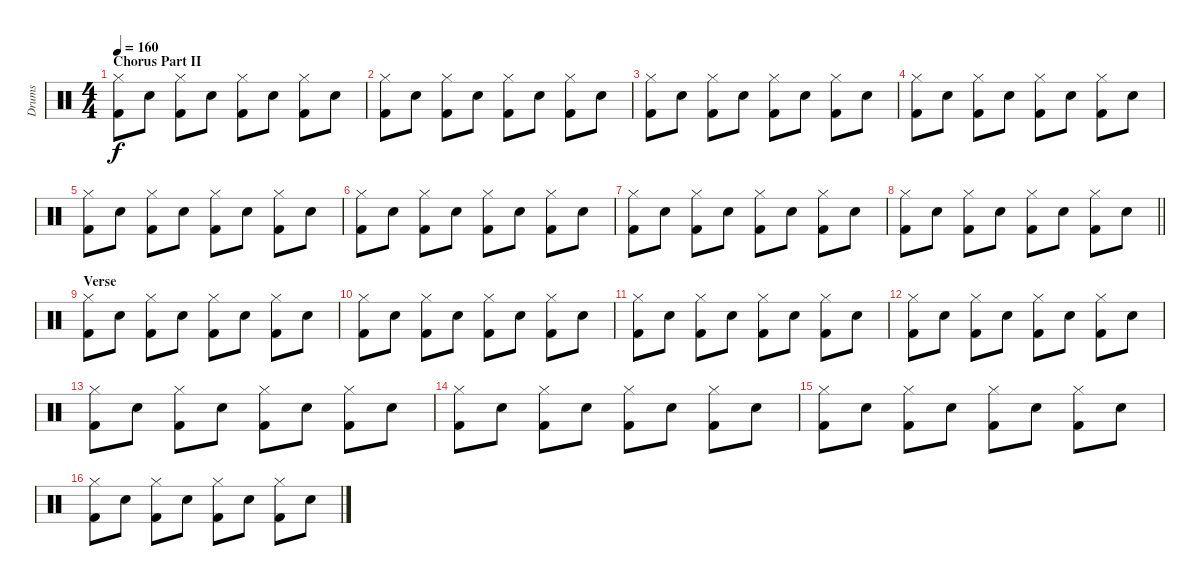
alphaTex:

\track ("Drums" "Drums") {instrument percussion}
\staff {score}
\articulation defaults
\ts (4 4)
\section ("" "Chorus Part II")
\tempo 160
\clef neutral
\ks c
("Hi-Hat (closed)" "Kick (hit) 2").8{dy f} "Snare (hit) 2".8 ("Hi-Hat (closed)" "Kick (hit) 2").8 "Snare (hit) 2".8 ("Hi-Hat (closed)" "Kick (hit) 2").8 "Snare (hit) 2".8 ("Hi-Hat (closed)" "Kick (hit) 2").8 "Snare (hit) 2".8 |
("Hi-Hat (closed)" "Kick (hit) 2").8 "Snare (hit) 2".8 ("Hi-Hat (closed)" "Kick (hit) 2").8 "Snare (hit) 2".8 ("Hi-Hat (closed)" "Kick (hit) 2").8 "Snare (hit) 2".8 ("Hi-Hat (closed)" "Kick (hit) 2").8 "Snare (hit) 2".8 |
("Hi-Hat (closed)" "Kick (hit) 2").8 "Snare (hit) 2".8 ("Hi-Hat (closed)" "Kick (hit) 2").8 "Snare (hit) 2".8 ("Hi-Hat (closed)" "Kick (hit) 2").8 "Snare (hit) 2".8 ("Hi-Hat (closed)" "Kick (hit) 2").8 "Snare (hit) 2".8 |
("Hi-Hat (closed)" "Kick (hit) 2").8 "Snare (hit) 2".8 ("Hi-Hat (closed)" "Kick (hit) 2").8 "Snare (hit) 2".8 ("Hi-Hat (closed)" "Kick (hit) 2").8 "Snare (hit) 2".8 ("Hi-Hat (closed)" "Kick (hit) 2").8 "Snare (hit) 2".8 |
("Hi-Hat (closed)" "Kick (hit) 2").8 "Snare (hit) 2".8 ("Hi-Hat (closed)" "Kick (hit) 2").8 "Snare (hit) 2".8 ("Hi-Hat (closed)" "Kick (hit) 2").8 "Snare (hit) 2".8 ("Hi-Hat (closed)" "Kick (hit) 2").8 "Snare (hit) 2".8 |
("Hi-Hat (closed)" "Kick (hit) 2").8 "Snare (hit) 2".8 ("Hi-Hat (closed)" "Kick (hit) 2").8 "Snare (hit) 2".8 ("Hi-Hat (closed)" "Kick (hit) 2").8 "Snare (hit) 2".8 ("Hi-Hat (closed)" "Kick (hit) 2").8 "Snare (hit) 2".8 |
("Hi-Hat (closed)" "Kick (hit) 2").8 "Snare (hit) 2".8 ("Hi-Hat (closed)" "Kick (hit) 2").8 "Snare (hit) 2".8 ("Hi-Hat (closed)" "Kick (hit) 2").8 "Snare (hit) 2".8 ("Hi-Hat (closed)" "Kick (hit) 2").8 "Snare (hit) 2".8 |
\barLineRight lightlight
("Hi-Hat (closed)" "Kick (hit) 2").8 "Snare (hit) 2".8 ("Hi-Hat (closed)" "Kick (hit) 2").8 "Snare (hit) 2".8 ("Hi-Hat (closed)" "Kick (hit) 2").8 "Snare (hit) 2".8 ("Hi-Hat (closed)" "Kick (hit) 2").8 "Snare (hit) 2".8 |
\section ("" "Verse")
("Hi-Hat (closed)" "Kick (hit) 2").8 "Snare (hit) 2".8 ("Hi-Hat (closed)" "Kick (hit) 2").8 "Snare (hit) 2".8 ("Hi-Hat (closed)" "Kick (hit) 2").8 "Snare (hit) 2".8 ("Hi-Hat (closed)" "Kick (hit) 2").8 "Snare (hit) 2".8 |
("Hi-Hat (closed)" "Kick (hit) 2").8 "Snare (hit) 2".8 ("Hi-Hat (closed)" "Kick (hit) 2").8 "Snare (hit) 2".8 ("Hi-Hat (closed)" "Kick (hit) 2").8 "Snare (hit) 2".8 ("Hi-Hat (closed)" "Kick (hit) 2").8 "Snare (hit) 2".8 |
("Hi-Hat (closed)" "Kick (hit) 2").8 "Snare (hit) 2".8 ("Hi-Hat (closed)" "Kick (hit) 2").8 "Snare (hit) 2".8 ("Hi-Hat (closed)" "Kick (hit) 2").8 "Snare (hit) 2".8 ("Hi-Hat (closed)" "Kick (hit) 2").8 "Snare (hit) 2".8 |
("Hi-Hat (closed)" "Kick (hit) 2").8 "Snare (hit) 2".8 ("Hi-Hat (closed)" "Kick (hit) 2").8 "Snare (hit) 2".8 ("Hi-Hat (closed)" "Kick (hit) 2").8 "Snare (hit) 2".8 ("Hi-Hat (closed)" "Kick (hit) 2").8 "Snare (hit) 2".8 |
("Hi-Hat (closed)" "Kick (hit) 2").8 "Snare (hit) 2".8 ("Hi-Hat (closed)" "Kick (hit) 2").8 "Snare (hit) 2".8 ("Hi-Hat (closed)" "Kick (hit) 2").8 "Snare (hit) 2".8 ("Hi-Hat (closed)" "Kick (hit) 2").8 "Snare (hit) 2".8 |
("Hi-Hat (closed)" "Kick (hit) 2").8 "Snare (hit) 2".8 ("Hi-Hat (closed)" "Kick (hit) 2").8 "Snare (hit) 2".8 ("Hi-Hat (closed)" "Kick (hit) 2").8 "Snare (hit) 2".8 ("Hi-Hat (closed)" "Kick (hit) 2").8 "Snare (hit) 2".8 |
("Hi-Hat (closed)" "Kick (hit) 2").8 "Snare (hit) 2".8 ("Hi-Hat (closed)" "Kick (hit) 2").8 "Snare (hit) 2".8 ("Hi-Hat (closed)" "Kick (hit) 2").8 "Snare (hit) 2".8 ("Hi-Hat (closed)" "Kick (hit) 2").8 "Snare (hit) 2".8 |
("Hi-Hat (closed)" "Kick (hit) 2").8 "Snare (hit) 2".8 ("Hi-Hat (closed)" "Kick (hit) 2").8 "Snare (hit) 2".8 ("Hi-Hat (closed)" "Kick (hit) 2").8 "Snare (hit) 2".8 ("Hi-Hat (closed)" "Kick (hit) 2").8 "Snare (hit) 2".8
